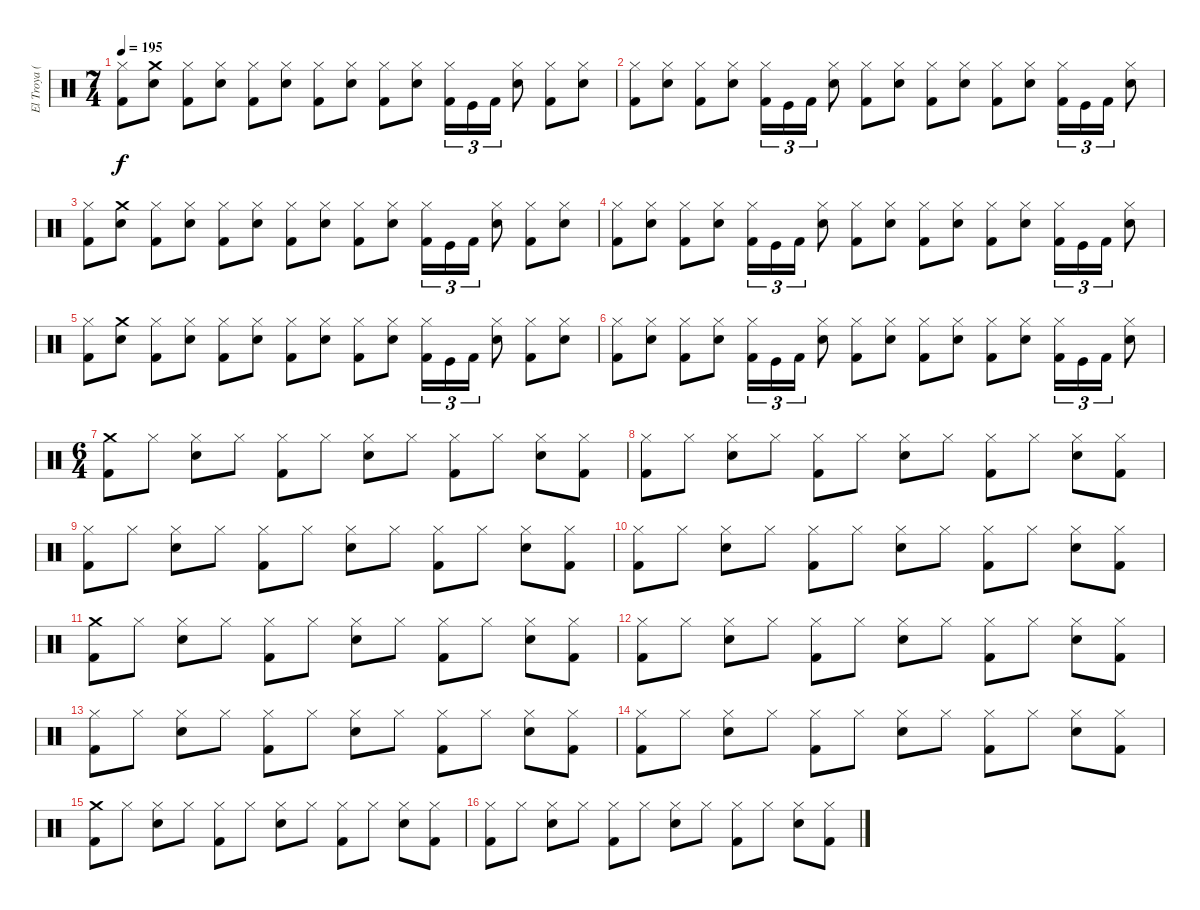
\track ("El Troya (premio)" "El Troya (") {instrument percussion}
\staff {score}
\articulation defaults
\ts (7 4)
\tempo 195
\clef neutral
\ks c
("Hi-Hat (closed)" "Kick (hit) 2").8{dy f} ("Crash medium (hit)" "Snare (hit) 2").8 ("Hi-Hat (closed)" "Kick (hit) 2").8 ("Snare (hit) 2" "Hi-Hat (closed)").8 ("Hi-Hat (closed)" "Kick (hit) 2").8 ("Snare (hit) 2" "Hi-Hat (closed)").8 ("Hi-Hat (closed)" "Kick (hit) 2").8 ("Snare (hit) 2" "Hi-Hat (closed)").8 ("Hi-Hat (closed)" "Kick (hit) 2").8 ("Snare (hit) 2" "Hi-Hat (closed)").8 ("Hi-Hat (closed)" "Kick (hit) 2").16{tu (3 2)} "Kick (hit)".16{tu (3 2)} "Kick (hit) 2".16{tu (3 2)} ("Snare (hit) 2" "Hi-Hat (closed)").8 ("Hi-Hat (closed)" "Kick (hit) 2").8 ("Snare (hit) 2" "Hi-Hat (closed)").8 |
("Hi-Hat (closed)" "Kick (hit) 2").8 ("Snare (hit) 2" "Hi-Hat (closed)").8 ("Hi-Hat (closed)" "Kick (hit) 2").8 ("Snare (hit) 2" "Hi-Hat (closed)").8 ("Hi-Hat (closed)" "Kick (hit) 2").16{tu (3 2)} "Kick (hit)".16{tu (3 2)} "Kick (hit) 2".16{tu (3 2)} ("Snare (hit) 2" "Hi-Hat (closed)").8 ("Hi-Hat (closed)" "Kick (hit) 2").8 ("Snare (hit) 2" "Hi-Hat (closed)").8 ("Hi-Hat (closed)" "Kick (hit) 2").8 ("Snare (hit) 2" "Hi-Hat (closed)").8 ("Kick (hit) 2" "Hi-Hat (closed)").8 ("Snare (hit) 2" "Hi-Hat (closed)").8 ("Kick (hit) 2" "Hi-Hat (closed)").16{tu (3 2)} "Kick (hit)".16{tu (3 2)} "Kick (hit) 2".16{tu (3 2)} ("Snare (hit) 2" "Hi-Hat (closed)").8 |
("Hi-Hat (closed)" "Kick (hit) 2").8 ("Crash medium (hit)" "Snare (hit) 2").8 ("Hi-Hat (closed)" "Kick (hit) 2").8 ("Snare (hit) 2" "Hi-Hat (closed)").8 ("Hi-Hat (closed)" "Kick (hit) 2").8 ("Snare (hit) 2" "Hi-Hat (closed)").8 ("Hi-Hat (closed)" "Kick (hit) 2").8 ("Snare (hit) 2" "Hi-Hat (closed)").8 ("Hi-Hat (closed)" "Kick (hit) 2").8 ("Snare (hit) 2" "Hi-Hat (closed)").8 ("Hi-Hat (closed)" "Kick (hit) 2").16{tu (3 2)} "Kick (hit)".16{tu (3 2)} "Kick (hit) 2".16{tu (3 2)} ("Snare (hit) 2" "Hi-Hat (closed)").8 ("Hi-Hat (closed)" "Kick (hit) 2").8 ("Snare (hit) 2" "Hi-Hat (closed)").8 |
("Hi-Hat (closed)" "Kick (hit) 2").8 ("Snare (hit) 2" "Hi-Hat (closed)").8 ("Hi-Hat (closed)" "Kick (hit) 2").8 ("Snare (hit) 2" "Hi-Hat (closed)").8 ("Hi-Hat (closed)" "Kick (hit) 2").16{tu (3 2)} "Kick (hit)".16{tu (3 2)} "Kick (hit) 2".16{tu (3 2)} ("Snare (hit) 2" "Hi-Hat (closed)").8 ("Hi-Hat (closed)" "Kick (hit) 2").8 ("Snare (hit) 2" "Hi-Hat (closed)").8 ("Hi-Hat (closed)" "Kick (hit) 2").8 ("Snare (hit) 2" "Hi-Hat (closed)").8 ("Kick (hit) 2" "Hi-Hat (closed)").8 ("Snare (hit) 2" "Hi-Hat (closed)").8 ("Kick (hit) 2" "Hi-Hat (closed)").16{tu (3 2)} "Kick (hit)".16{tu (3 2)} "Kick (hit) 2".16{tu (3 2)} ("Snare (hit) 2" "Hi-Hat (closed)").8 |
("Hi-Hat (closed)" "Kick (hit) 2").8 ("Crash medium (hit)" "Snare (hit) 2").8 ("Hi-Hat (closed)" "Kick (hit) 2").8 ("Snare (hit) 2" "Hi-Hat (closed)").8 ("Hi-Hat (closed)" "Kick (hit) 2").8 ("Snare (hit) 2" "Hi-Hat (closed)").8 ("Hi-Hat (closed)" "Kick (hit) 2").8 ("Snare (hit) 2" "Hi-Hat (closed)").8 ("Hi-Hat (closed)" "Kick (hit) 2").8 ("Snare (hit) 2" "Hi-Hat (closed)").8 ("Hi-Hat (closed)" "Kick (hit) 2").16{tu (3 2)} "Kick (hit)".16{tu (3 2)} "Kick (hit) 2".16{tu (3 2)} ("Snare (hit) 2" "Hi-Hat (closed)").8 ("Hi-Hat (closed)" "Kick (hit) 2").8 ("Snare (hit) 2" "Hi-Hat (closed)").8 |
("Hi-Hat (closed)" "Kick (hit) 2").8 ("Snare (hit) 2" "Hi-Hat (closed)").8 ("Hi-Hat (closed)" "Kick (hit) 2").8 ("Snare (hit) 2" "Hi-Hat (closed)").8 ("Hi-Hat (closed)" "Kick (hit) 2").16{tu (3 2)} "Kick (hit)".16{tu (3 2)} "Kick (hit) 2".16{tu (3 2)} ("Snare (hit) 2" "Hi-Hat (closed)").8 ("Hi-Hat (closed)" "Kick (hit) 2").8 ("Snare (hit) 2" "Hi-Hat (closed)").8 ("Hi-Hat (closed)" "Kick (hit) 2").8 ("Snare (hit) 2" "Hi-Hat (closed)").8 ("Kick (hit) 2" "Hi-Hat (closed)").8 ("Snare (hit) 2" "Hi-Hat (closed)").8 ("Kick (hit) 2" "Hi-Hat (closed)").16{tu (3 2)} "Kick (hit)".16{tu (3 2)} "Kick (hit) 2".16{tu (3 2)} ("Snare (hit) 2" "Hi-Hat (closed)").8 |
\ts (6 4)
("Kick (hit) 2" "Crash medium (hit)").8 "Hi-Hat (closed)".8 ("Snare (hit) 2" "Hi-Hat (closed)").8 "Hi-Hat (closed)".8 ("Kick (hit) 2" "Hi-Hat (closed)").8 "Hi-Hat (closed)".8 ("Snare (hit) 2" "Hi-Hat (closed)").8 "Hi-Hat (closed)".8 ("Kick (hit) 2" "Hi-Hat (closed)").8 "Hi-Hat (closed)".8 ("Snare (hit) 2" "Hi-Hat (closed)").8 ("Kick (hit) 2" "Hi-Hat (closed)").8 |
("Hi-Hat (closed)" "Kick (hit) 2").8 "Hi-Hat (closed)".8 ("Snare (hit) 2" "Hi-Hat (closed)").8 "Hi-Hat (closed)".8 ("Kick (hit) 2" "Hi-Hat (closed)").8 "Hi-Hat (closed)".8 ("Snare (hit) 2" "Hi-Hat (closed)").8 "Hi-Hat (closed)".8 ("Kick (hit) 2" "Hi-Hat (closed)").8 "Hi-Hat (closed)".8 ("Snare (hit) 2" "Hi-Hat (closed)").8 ("Kick (hit) 2" "Hi-Hat (closed)").8 |
("Hi-Hat (closed)" "Kick (hit) 2").8 "Hi-Hat (closed)".8 ("Snare (hit) 2" "Hi-Hat (closed)").8 "Hi-Hat (closed)".8 ("Kick (hit) 2" "Hi-Hat (closed)").8 "Hi-Hat (closed)".8 ("Snare (hit) 2" "Hi-Hat (closed)").8 "Hi-Hat (closed)".8 ("Kick (hit) 2" "Hi-Hat (closed)").8 "Hi-Hat (closed)".8 ("Snare (hit) 2" "Hi-Hat (closed)").8 ("Kick (hit) 2" "Hi-Hat (closed)").8 |
("Hi-Hat (closed)" "Kick (hit) 2").8 "Hi-Hat (closed)".8 ("Snare (hit) 2" "Hi-Hat (closed)").8 "Hi-Hat (closed)".8 ("Kick (hit) 2" "Hi-Hat (closed)").8 "Hi-Hat (closed)".8 ("Snare (hit) 2" "Hi-Hat (closed)").8 "Hi-Hat (closed)".8 ("Kick (hit) 2" "Hi-Hat (closed)").8 "Hi-Hat (closed)".8 ("Snare (hit) 2" "Hi-Hat (closed)").8 ("Kick (hit) 2" "Hi-Hat (closed)").8 |
("Kick (hit) 2" "Crash medium (hit)").8 "Hi-Hat (closed)".8 ("Snare (hit) 2" "Hi-Hat (closed)").8 "Hi-Hat (closed)".8 ("Kick (hit) 2" "Hi-Hat (closed)").8 "Hi-Hat (closed)".8 ("Snare (hit) 2" "Hi-Hat (closed)").8 "Hi-Hat (closed)".8 ("Kick (hit) 2" "Hi-Hat (closed)").8 "Hi-Hat (closed)".8 ("Snare (hit) 2" "Hi-Hat (closed)").8 ("Kick (hit) 2" "Hi-Hat (closed)").8 |
("Hi-Hat (closed)" "Kick (hit) 2").8 "Hi-Hat (closed)".8 ("Snare (hit) 2" "Hi-Hat (closed)").8 "Hi-Hat (closed)".8 ("Kick (hit) 2" "Hi-Hat (closed)").8 "Hi-Hat (closed)".8 ("Snare (hit) 2" "Hi-Hat (closed)").8 "Hi-Hat (closed)".8 ("Kick (hit) 2" "Hi-Hat (closed)").8 "Hi-Hat (closed)".8 ("Snare (hit) 2" "Hi-Hat (closed)").8 ("Kick (hit) 2" "Hi-Hat (closed)").8 |
("Hi-Hat (closed)" "Kick (hit) 2").8 "Hi-Hat (closed)".8 ("Snare (hit) 2" "Hi-Hat (closed)").8 "Hi-Hat (closed)".8 ("Kick (hit) 2" "Hi-Hat (closed)").8 "Hi-Hat (closed)".8 ("Snare (hit) 2" "Hi-Hat (closed)").8 "Hi-Hat (closed)".8 ("Kick (hit) 2" "Hi-Hat (closed)").8 "Hi-Hat (closed)".8 ("Snare (hit) 2" "Hi-Hat (closed)").8 ("Kick (hit) 2" "Hi-Hat (closed)").8 |
("Hi-Hat (closed)" "Kick (hit) 2").8 "Hi-Hat (closed)".8 ("Snare (hit) 2" "Hi-Hat (closed)").8 "Hi-Hat (closed)".8 ("Kick (hit) 2" "Hi-Hat (closed)").8 "Hi-Hat (closed)".8 ("Snare (hit) 2" "Hi-Hat (closed)").8 "Hi-Hat (closed)".8 ("Kick (hit) 2" "Hi-Hat (closed)").8 "Hi-Hat (closed)".8 ("Snare (hit) 2" "Hi-Hat (closed)").8 ("Kick (hit) 2" "Hi-Hat (closed)").8 |
("Kick (hit) 2" "Crash medium (hit)").8 "Hi-Hat (closed)".8 ("Snare (hit) 2" "Hi-Hat (closed)").8 "Hi-Hat (closed)".8 ("Kick (hit) 2" "Hi-Hat (closed)").8 "Hi-Hat (closed)".8 ("Snare (hit) 2" "Hi-Hat (closed)").8 "Hi-Hat (closed)".8 ("Kick (hit) 2" "Hi-Hat (closed)").8 "Hi-Hat (closed)".8 ("Snare (hit) 2" "Hi-Hat (closed)").8 ("Kick (hit) 2" "Hi-Hat (closed)").8 |
("Hi-Hat (closed)" "Kick (hit) 2").8 "Hi-Hat (closed)".8 ("Snare (hit) 2" "Hi-Hat (closed)").8 "Hi-Hat (closed)".8 ("Kick (hit) 2" "Hi-Hat (closed)").8 "Hi-Hat (closed)".8 ("Snare (hit) 2" "Hi-Hat (closed)").8 "Hi-Hat (closed)".8 ("Kick (hit) 2" "Hi-Hat (closed)").8 "Hi-Hat (closed)".8 ("Snare (hit) 2" "Hi-Hat (closed)").8 ("Kick (hit) 2" "Hi-Hat (closed)").8
